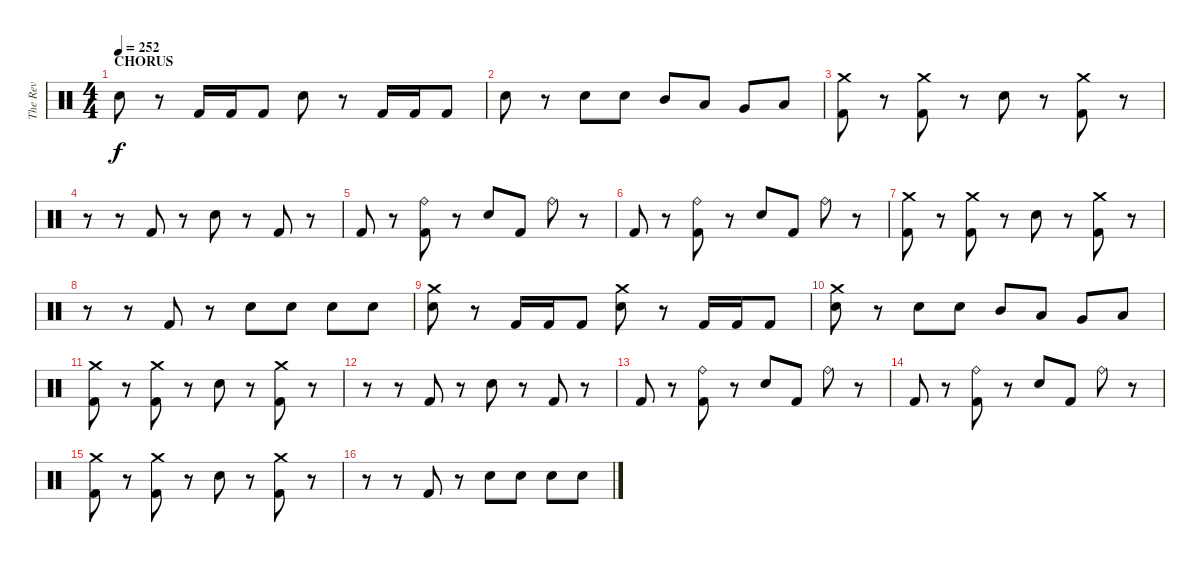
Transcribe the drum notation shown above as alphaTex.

\track ("The Rev" "The Rev") {instrument percussion}
\staff {score}
\articulation defaults
\ts (4 4)
\section ("" "CHORUS")
\tempo 252
\clef neutral
\ks c "Electric Snare (hit)".8{dy f}
r.8 "Kick (hit) 2".16 "Kick (hit) 2".16 "Kick (hit) 2".8 "Electric Snare (hit)".8 r.8 "Kick (hit) 2".16 "Kick (hit) 2".16 "Kick (hit) 2".8 |
"Electric Snare (hit)".8 r.8 "Electric Snare (hit)".8 "Electric Snare (hit)".8 "Mid Tom (hit)".8 "Low Tom (hit)".8 "Very Low Tom (hit)".8 "Low Floor Tom (hit)".8 |
("Crash medium (hit)" "Kick (hit) 2").8 r.8 ("Crash medium (hit)" "Kick (hit) 2").8 r.8 "Electric Snare (hit)".8 r.8 ("Crash medium (hit)" "Kick (hit) 2").8 r.8 |
r.8 r.8 "Kick (hit) 2".8 r.8 "Electric Snare (hit)".8 r.8 "Kick (hit) 2".8 r.8 |
"Kick (hit) 2".8 r.8 ("Ride (bell)" "Kick (hit) 2").8 r.8 "Electric Snare (hit)".8 "Kick (hit) 2".8 "Ride (bell)".8 r.8 |
"Kick (hit) 2".8 r.8 ("Ride (bell)" "Kick (hit) 2").8 r.8 "Electric Snare (hit)".8 "Kick (hit) 2".8 "Ride (bell)".8 r.8 |
("Crash medium (hit)" "Kick (hit) 2").8 r.8 ("Crash medium (hit)" "Kick (hit) 2").8 r.8 "Electric Snare (hit)".8 r.8 ("Crash medium (hit)" "Kick (hit) 2").8 r.8 |
r.8 r.8 "Kick (hit) 2".8 r.8 "Electric Snare (hit)".8 "Electric Snare (hit)".8 "Electric Snare (hit)".8 "Electric Snare (hit)".8 |
("Crash medium (hit)" "Electric Snare (hit)").8 r.8 "Kick (hit) 2".16 "Kick (hit) 2".16 "Kick (hit) 2".8 ("Crash medium (hit)" "Electric Snare (hit)").8 r.8 "Kick (hit) 2".16 "Kick (hit) 2".16 "Kick (hit) 2".8 |
("Crash medium (hit)" "Electric Snare (hit)").8 r.8 "Electric Snare (hit)".8 "Electric Snare (hit)".8 "Mid Tom (hit)".8 "Low Tom (hit)".8 "Very Low Tom (hit)".8 "Low Floor Tom (hit)".8 |
("Crash medium (hit)" "Kick (hit) 2").8 r.8 ("Crash medium (hit)" "Kick (hit) 2").8 r.8 "Electric Snare (hit)".8 r.8 ("Crash medium (hit)" "Kick (hit) 2").8 r.8 |
r.8 r.8 "Kick (hit) 2".8 r.8 "Electric Snare (hit)".8 r.8 "Kick (hit) 2".8 r.8 |
"Kick (hit) 2".8 r.8 ("Ride (bell)" "Kick (hit) 2").8 r.8 "Electric Snare (hit)".8 "Kick (hit) 2".8 "Ride (bell)".8 r.8 |
"Kick (hit) 2".8 r.8 ("Ride (bell)" "Kick (hit) 2").8 r.8 "Electric Snare (hit)".8 "Kick (hit) 2".8 "Ride (bell)".8 r.8 |
("Crash medium (hit)" "Kick (hit) 2").8 r.8 ("Crash medium (hit)" "Kick (hit) 2").8 r.8 "Electric Snare (hit)".8 r.8 ("Crash medium (hit)" "Kick (hit) 2").8 r.8 |
r.8 r.8 "Kick (hit) 2".8 r.8 "Electric Snare (hit)".8 "Electric Snare (hit)".8 "Electric Snare (hit)".8 "Electric Snare (hit)".8
